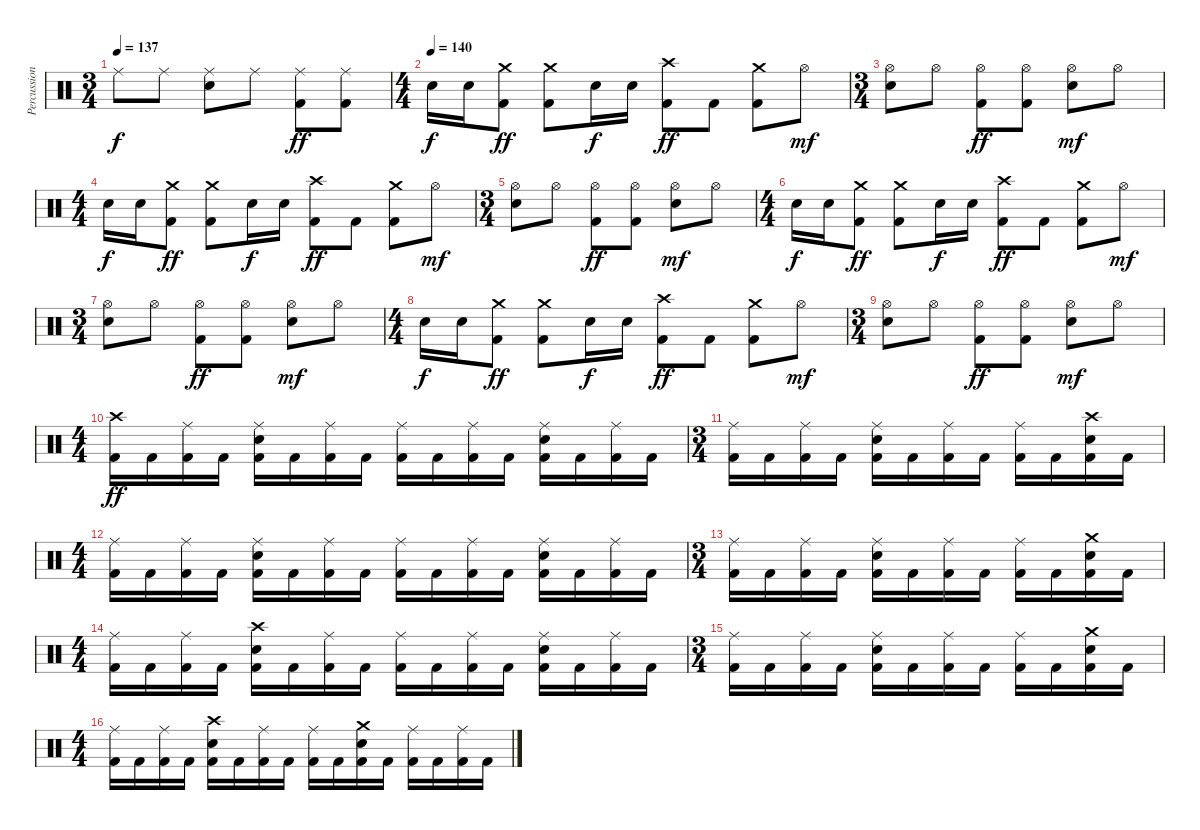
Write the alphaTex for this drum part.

\track ("Percussion" "Percussion") {instrument percussion}
\staff {score}
\articulation defaults
\ts (3 4)
\tempo 137
\clef neutral
\ks c "Ride (middle)".8{dy f} "Ride (middle)".8
("Ride (middle)" "Electric Snare (hit)").8 "Ride (middle)".8 ("Ride (middle)" "Kick (hit) 2").8{dy ff} ("Ride (middle)" "Kick (hit) 2").8 |
\ts (4 4)
\tempo (140)
"Electric Snare (hit)".16{dy f} "Electric Snare (hit)".16 ("Crash medium (hit)" "Kick (hit) 2").8{dy ff} ("Crash medium (hit)" "Kick (hit) 2").8 "Electric Snare (hit)".16{dy f} "Electric Snare (hit)".16 ("Crash high (hit)" "Kick (hit) 2").8{dy ff} "Kick (hit) 2".8 ("Crash medium (hit)" "Kick (hit) 2").8 "Hi-Hat (open)".8{dy mf} |
\ts (3 4)
("Hi-Hat (open)" "Electric Snare (hit)").8 "Hi-Hat (open)".8 ("Hi-Hat (open)" "Kick (hit) 2").8{dy ff} ("Hi-Hat (open)" "Kick (hit) 2").8 ("Hi-Hat (open)" "Electric Snare (hit)").8{dy mf} "Hi-Hat (open)".8 |
\ts (4 4)
"Electric Snare (hit)".16{dy f} "Electric Snare (hit)".16 ("Crash medium (hit)" "Kick (hit) 2").8{dy ff} ("Crash medium (hit)" "Kick (hit) 2").8 "Electric Snare (hit)".16{dy f} "Electric Snare (hit)".16 ("Crash high (hit)" "Kick (hit) 2").8{dy ff} "Kick (hit) 2".8 ("Crash medium (hit)" "Kick (hit) 2").8 "Hi-Hat (open)".8{dy mf} |
\ts (3 4)
("Hi-Hat (open)" "Electric Snare (hit)").8 "Hi-Hat (open)".8 ("Hi-Hat (open)" "Kick (hit) 2").8{dy ff} ("Hi-Hat (open)" "Kick (hit) 2").8 ("Hi-Hat (open)" "Electric Snare (hit)").8{dy mf} "Hi-Hat (open)".8 |
\ts (4 4)
"Electric Snare (hit)".16{dy f} "Electric Snare (hit)".16 ("Crash medium (hit)" "Kick (hit) 2").8{dy ff} ("Crash medium (hit)" "Kick (hit) 2").8 "Electric Snare (hit)".16{dy f} "Electric Snare (hit)".16 ("Crash high (hit)" "Kick (hit) 2").8{dy ff} "Kick (hit) 2".8 ("Crash medium (hit)" "Kick (hit) 2").8 "Hi-Hat (open)".8{dy mf} |
\ts (3 4)
("Hi-Hat (open)" "Electric Snare (hit)").8 "Hi-Hat (open)".8 ("Hi-Hat (open)" "Kick (hit) 2").8{dy ff} ("Hi-Hat (open)" "Kick (hit) 2").8 ("Hi-Hat (open)" "Electric Snare (hit)").8{dy mf} "Hi-Hat (open)".8 |
\ts (4 4)
"Electric Snare (hit)".16{dy f} "Electric Snare (hit)".16 ("Crash medium (hit)" "Kick (hit) 2").8{dy ff} ("Crash medium (hit)" "Kick (hit) 2").8 "Electric Snare (hit)".16{dy f} "Electric Snare (hit)".16 ("Crash high (hit)" "Kick (hit) 2").8{dy ff} "Kick (hit) 2".8 ("Crash medium (hit)" "Kick (hit) 2").8 "Hi-Hat (open)".8{dy mf} |
\ts (3 4)
("Hi-Hat (open)" "Electric Snare (hit)").8 "Hi-Hat (open)".8 ("Hi-Hat (open)" "Kick (hit) 2").8{dy ff} ("Hi-Hat (open)" "Kick (hit) 2").8 ("Hi-Hat (open)" "Electric Snare (hit)").8{dy mf} "Hi-Hat (open)".8 |
\ts (4 4)
("Crash high (hit)" "Kick (hit) 2").16{dy ff volume 7} "Kick (hit) 2".16 ("Ride (middle)" "Kick (hit) 2").16 "Kick (hit) 2".16 ("Ride (middle)" "Electric Snare (hit)" "Kick (hit) 2").16 "Kick (hit) 2".16 ("Ride (middle)" "Kick (hit) 2").16 "Kick (hit) 2".16 ("Ride (middle)" "Kick (hit) 2").16 "Kick (hit) 2".16 ("Ride (middle)" "Kick (hit) 2").16 "Kick (hit) 2".16 ("Ride (middle)" "Electric Snare (hit)" "Kick (hit) 2").16 "Kick (hit) 2".16 ("Ride (middle)" "Kick (hit) 2").16 "Kick (hit) 2".16 |
\ts (3 4)
("Ride (middle)" "Kick (hit) 2").16 "Kick (hit) 2".16 ("Ride (middle)" "Kick (hit) 2").16 "Kick (hit) 2".16 ("Ride (middle)" "Electric Snare (hit)" "Kick (hit) 2").16 "Kick (hit) 2".16 ("Ride (middle)" "Kick (hit) 2").16 "Kick (hit) 2".16 ("Ride (middle)" "Kick (hit) 2").16 "Kick (hit) 2".16 ("Crash high (hit)" "Electric Snare (hit)" "Kick (hit) 2").16 "Kick (hit) 2".16 |
\ts (4 4)
("Ride (middle)" "Kick (hit) 2").16 "Kick (hit) 2".16 ("Ride (middle)" "Kick (hit) 2").16 "Kick (hit) 2".16 ("Ride (middle)" "Electric Snare (hit)" "Kick (hit) 2").16 "Kick (hit) 2".16 ("Ride (middle)" "Kick (hit) 2").16 "Kick (hit) 2".16 ("Ride (middle)" "Kick (hit) 2").16 "Kick (hit) 2".16 ("Ride (middle)" "Kick (hit) 2").16 "Kick (hit) 2".16 ("Ride (middle)" "Electric Snare (hit)" "Kick (hit) 2").16 "Kick (hit) 2".16 ("Ride (middle)" "Kick (hit) 2").16 "Kick (hit) 2".16 |
\ts (3 4)
("Ride (middle)" "Kick (hit) 2").16 "Kick (hit) 2".16 ("Ride (middle)" "Kick (hit) 2").16 "Kick (hit) 2".16 ("Ride (middle)" "Electric Snare (hit)" "Kick (hit) 2").16 "Kick (hit) 2".16 ("Ride (middle)" "Kick (hit) 2").16 "Kick (hit) 2".16 ("Ride (middle)" "Kick (hit) 2").16 "Kick (hit) 2".16 ("Crash medium (hit)" "Electric Snare (hit)" "Kick (hit) 2").16 "Kick (hit) 2".16 |
\ts (4 4)
("Ride (middle)" "Kick (hit) 2").16 "Kick (hit) 2".16 ("Ride (middle)" "Kick (hit) 2").16 "Kick (hit) 2".16 ("Crash high (hit)" "Electric Snare (hit)" "Kick (hit) 2").16 "Kick (hit) 2".16 ("Ride (middle)" "Kick (hit) 2").16 "Kick (hit) 2".16 ("Ride (middle)" "Kick (hit) 2").16 "Kick (hit) 2".16 ("Ride (middle)" "Kick (hit) 2").16 "Kick (hit) 2".16 ("Ride (middle)" "Electric Snare (hit)" "Kick (hit) 2").16 "Kick (hit) 2".16 ("Ride (middle)" "Kick (hit) 2").16 "Kick (hit) 2".16 |
\ts (3 4)
("Ride (middle)" "Kick (hit) 2").16 "Kick (hit) 2".16 ("Ride (middle)" "Kick (hit) 2").16 "Kick (hit) 2".16 ("Ride (middle)" "Electric Snare (hit)" "Kick (hit) 2").16 "Kick (hit) 2".16 ("Ride (middle)" "Kick (hit) 2").16 "Kick (hit) 2".16 ("Ride (middle)" "Kick (hit) 2").16 "Kick (hit) 2".16 ("Crash medium (hit)" "Electric Snare (hit)" "Kick (hit) 2").16 "Kick (hit) 2".16 |
\ts (4 4)
("Ride (middle)" "Kick (hit) 2").16 "Kick (hit) 2".16 ("Ride (middle)" "Kick (hit) 2").16 "Kick (hit) 2".16 ("Crash high (hit)" "Electric Snare (hit)" "Kick (hit) 2").16 "Kick (hit) 2".16 ("Ride (middle)" "Kick (hit) 2").16 "Kick (hit) 2".16 ("Ride (middle)" "Kick (hit) 2").16 "Kick (hit) 2".16 ("Crash medium (hit)" "Electric Snare (hit)" "Kick (hit) 2").16 "Kick (hit) 2".16 ("Ride (middle)" "Kick (hit) 2").16 "Kick (hit) 2".16 ("Ride (middle)" "Kick (hit) 2").16 "Kick (hit) 2".16
